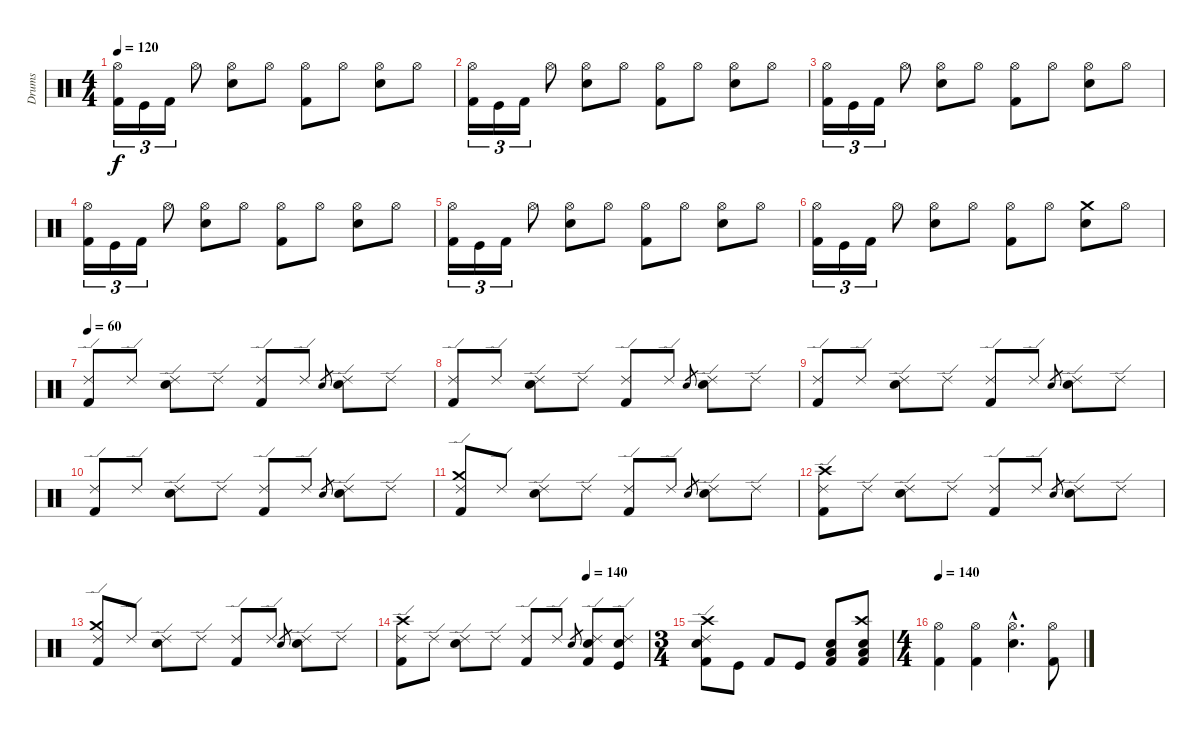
\track ("Drums" "Drums") {instrument percussion}
\staff {score}
\articulation defaults
\ts (4 4)
\tempo 120
\clef neutral
\ks c
("Hi-Hat (open)" "Kick (hit) 2").16{tu (3 2) dy f} "Kick (hit)".16{tu (3 2)} "Kick (hit) 2".16{tu (3 2)} "Hi-Hat (open)".8 ("Hi-Hat (open)" "Snare (hit) 2").8 "Hi-Hat (open)".8 ("Hi-Hat (open)" "Kick (hit) 2").8 "Hi-Hat (open)".8 ("Hi-Hat (open)" "Snare (hit) 2").8 "Hi-Hat (open)".8 |
("Hi-Hat (open)" "Kick (hit) 2").16{tu (3 2)} "Kick (hit)".16{tu (3 2)} "Kick (hit) 2".16{tu (3 2)} "Hi-Hat (open)".8 ("Hi-Hat (open)" "Snare (hit) 2").8 "Hi-Hat (open)".8 ("Hi-Hat (open)" "Kick (hit) 2").8 "Hi-Hat (open)".8 ("Hi-Hat (open)" "Snare (hit) 2").8 "Hi-Hat (open)".8 |
("Hi-Hat (open)" "Kick (hit) 2").16{tu (3 2)} "Kick (hit)".16{tu (3 2)} "Kick (hit) 2".16{tu (3 2)} "Hi-Hat (open)".8 ("Hi-Hat (open)" "Snare (hit) 2").8 "Hi-Hat (open)".8 ("Hi-Hat (open)" "Kick (hit) 2").8 "Hi-Hat (open)".8 ("Hi-Hat (open)" "Snare (hit) 2").8 "Hi-Hat (open)".8 |
("Hi-Hat (open)" "Kick (hit) 2").16{tu (3 2)} "Kick (hit)".16{tu (3 2)} "Kick (hit) 2".16{tu (3 2)} "Hi-Hat (open)".8 ("Hi-Hat (open)" "Snare (hit) 2").8 "Hi-Hat (open)".8 ("Hi-Hat (open)" "Kick (hit) 2").8 "Hi-Hat (open)".8 ("Hi-Hat (open)" "Snare (hit) 2").8 "Hi-Hat (open)".8 |
("Hi-Hat (open)" "Kick (hit) 2").16{tu (3 2)} "Kick (hit)".16{tu (3 2)} "Kick (hit) 2".16{tu (3 2)} "Hi-Hat (open)".8 ("Hi-Hat (open)" "Snare (hit) 2").8 "Hi-Hat (open)".8 ("Hi-Hat (open)" "Kick (hit) 2").8 "Hi-Hat (open)".8 ("Hi-Hat (open)" "Snare (hit) 2").8 "Hi-Hat (open)".8 |
("Hi-Hat (open)" "Kick (hit) 2").16{tu (3 2)} "Kick (hit)".16{tu (3 2)} "Kick (hit) 2".16{tu (3 2)} "Hi-Hat (open)".8 ("Hi-Hat (open)" "Snare (hit) 2").8 "Hi-Hat (open)".8 ("Hi-Hat (open)" "Kick (hit) 2").8 "Hi-Hat (open)".8 ("Crash medium (hit)" "Snare (hit) 2").8 "Hi-Hat (open)".8 |
\tempo 60
("Ride (edge) 2" "Kick (hit) 2").8 "Ride (edge) 2".8 ("Ride (edge) 2" "Electric Snare (hit)").8 "Ride (edge) 2".8 ("Ride (edge) 2" "Kick (hit) 2").8 "Ride (edge) 2".8 "Snare (hit) 2".8{gr} ("Ride (edge) 2" "Electric Snare (hit)").8 "Ride (edge) 2".8 |
("Ride (edge) 2" "Kick (hit) 2").8 "Ride (edge) 2".8 ("Ride (edge) 2" "Electric Snare (hit)").8 "Ride (edge) 2".8 ("Ride (edge) 2" "Kick (hit) 2").8 "Ride (edge) 2".8 "Snare (hit) 2".8{gr} ("Ride (edge) 2" "Electric Snare (hit)").8 "Ride (edge) 2".8 |
("Ride (edge) 2" "Kick (hit) 2").8 "Ride (edge) 2".8 ("Ride (edge) 2" "Electric Snare (hit)").8 "Ride (edge) 2".8 ("Ride (edge) 2" "Kick (hit) 2").8 "Ride (edge) 2".8 "Snare (hit) 2".8{gr} ("Ride (edge) 2" "Electric Snare (hit)").8 "Ride (edge) 2".8 |
("Ride (edge) 2" "Kick (hit) 2").8 "Ride (edge) 2".8 ("Ride (edge) 2" "Electric Snare (hit)").8 "Ride (edge) 2".8 ("Ride (edge) 2" "Kick (hit) 2").8 "Ride (edge) 2".8 "Snare (hit) 2".8{gr} ("Ride (edge) 2" "Electric Snare (hit)").8 "Ride (edge) 2".8 |
("Crash medium (hit)" "Ride (edge) 2" "Kick (hit) 2").8 "Ride (edge) 2".8 ("Ride (edge) 2" "Electric Snare (hit)").8 "Ride (edge) 2".8 ("Ride (edge) 2" "Kick (hit) 2").8 "Ride (edge) 2".8 "Snare (hit) 2".8{gr} ("Ride (edge) 2" "Electric Snare (hit)").8 "Ride (edge) 2".8 |
("Crash high (hit)" "Ride (edge) 2" "Kick (hit) 2").8 "Ride (edge) 2".8 ("Ride (edge) 2" "Electric Snare (hit)").8 "Ride (edge) 2".8 ("Ride (edge) 2" "Kick (hit) 2").8 "Ride (edge) 2".8 "Snare (hit) 2".8{gr} ("Ride (edge) 2" "Electric Snare (hit)").8 "Ride (edge) 2".8 |
("Crash medium (hit)" "Ride (edge) 2" "Kick (hit) 2").8 "Ride (edge) 2".8 ("Ride (edge) 2" "Electric Snare (hit)").8 "Ride (edge) 2".8 ("Ride (edge) 2" "Kick (hit) 2").8 "Ride (edge) 2".8 "Snare (hit) 2".8{gr} ("Ride (edge) 2" "Electric Snare (hit)").8 "Ride (edge) 2".8 |
\tempo (140 0.75)
("Crash high (hit)" "Ride (edge) 2" "Kick (hit) 2").8 "Ride (edge) 2".8 ("Ride (edge) 2" "Electric Snare (hit)").8 "Ride (edge) 2".8 ("Ride (edge) 2" "Kick (hit) 2").8 "Ride (edge) 2".8 "Snare (hit) 2".8{gr} ("Ride (edge) 2" "Electric Snare (hit)" "Kick (hit) 2").8 ("Ride (edge) 2" "Electric Snare (hit)" "Kick (hit)").8 |
\ts (3 4)
("Crash high (hit)" "Ride (edge) 2" "Electric Snare (hit)" "Kick (hit) 2").8 "Kick (hit)".8 "Kick (hit) 2".8 "Kick (hit)".8 ("Electric Snare (hit)" "Low Tom (hit)" "Kick (hit) 2").8 ("Crash high (hit)" "Electric Snare (hit)" "Low Tom (hit)" "Kick (hit) 2").8 |
\ts (4 4)
\tempo 140
("Hi-Hat (open)" "Kick (hit) 2").4 ("Hi-Hat (open)" "Kick (hit) 2").4 ("Hi-Hat (open)"{hac} "Snare (hit) 2"{hac}).4{d} ("Hi-Hat (open)" "Kick (hit) 2").8
